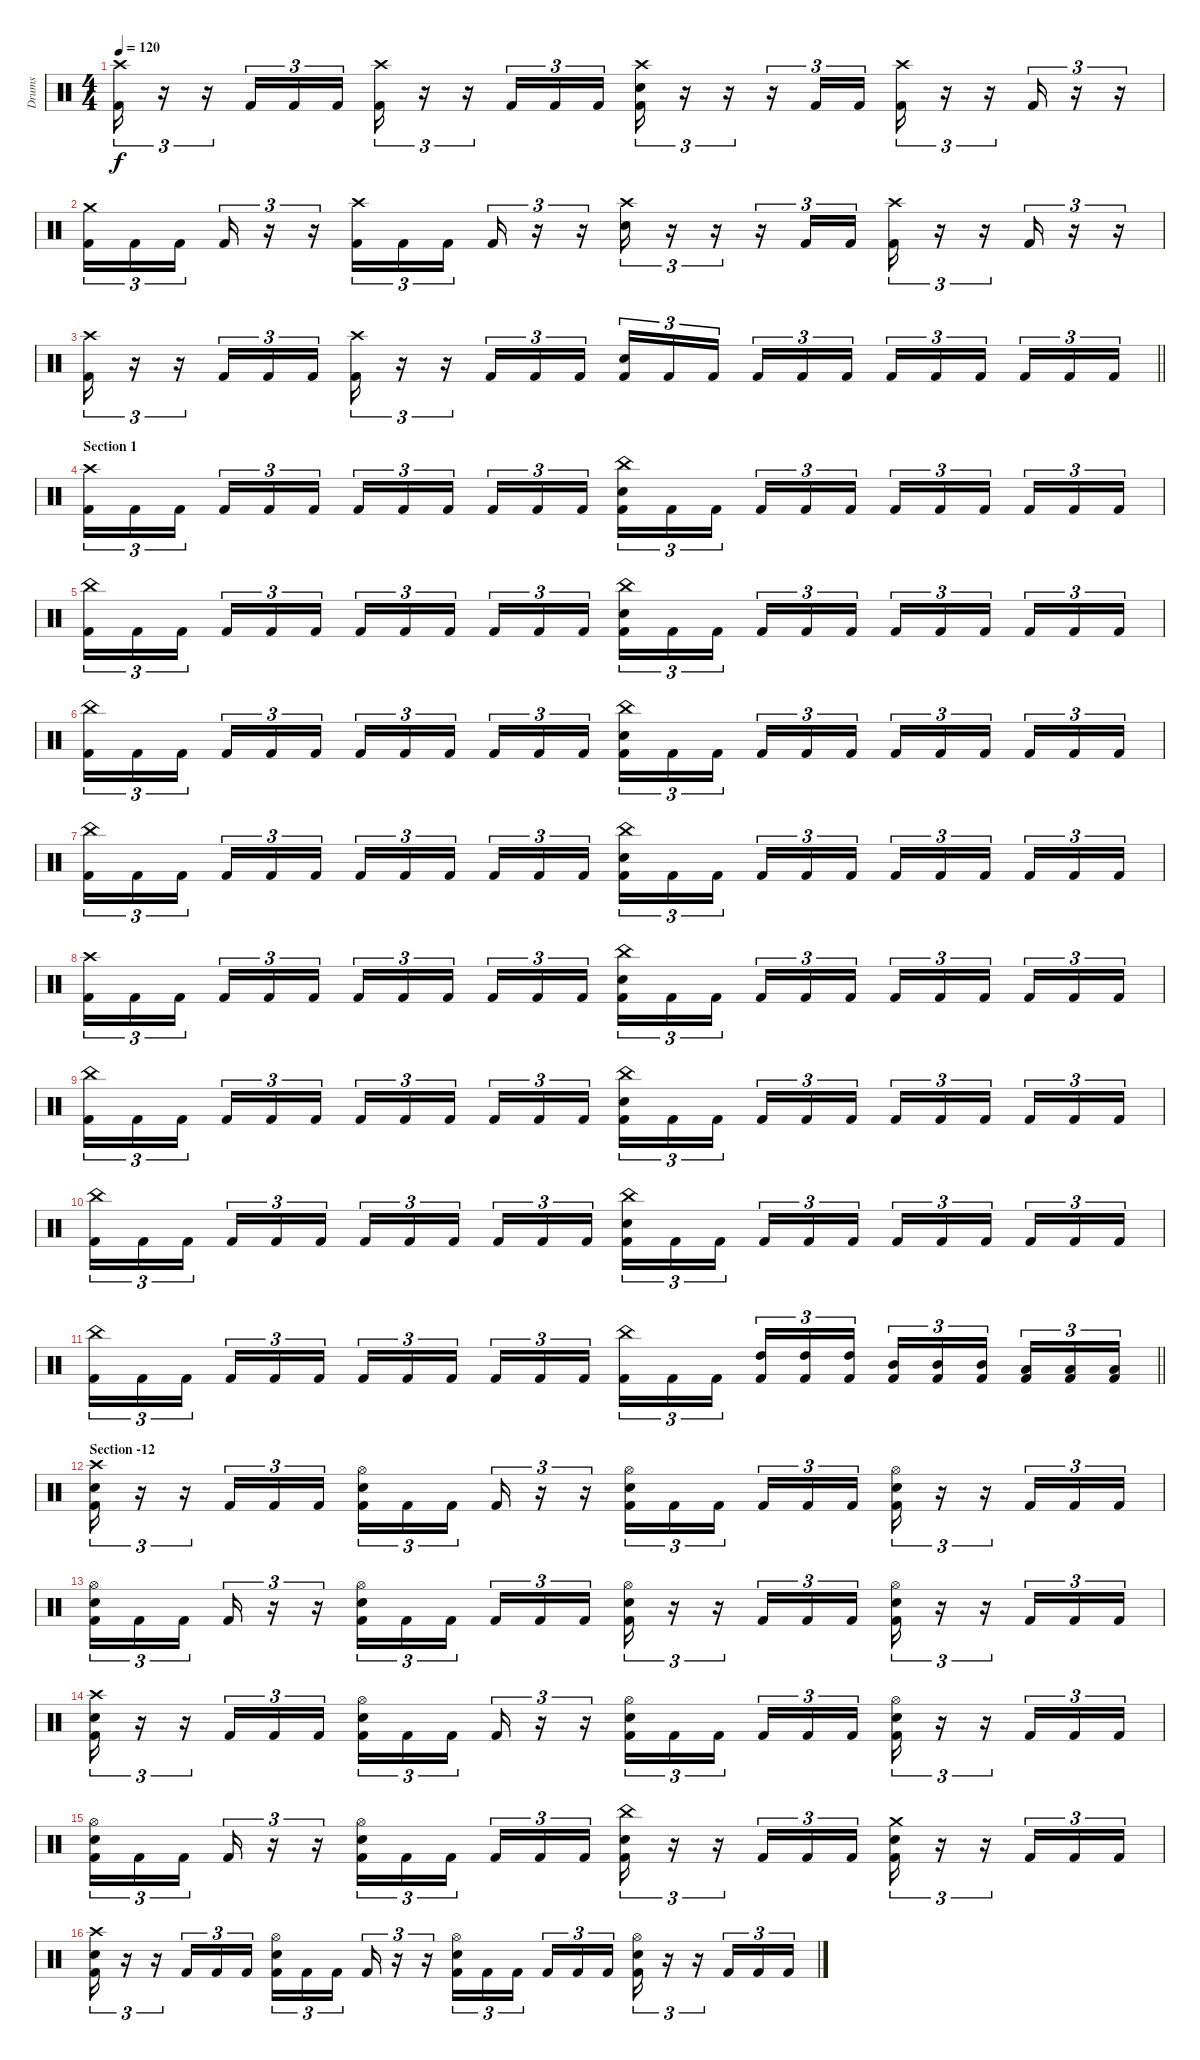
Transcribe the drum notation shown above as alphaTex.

\track ("Drums" "Drums") {instrument percussion}
\staff {score}
\articulation defaults
\ts (4 4)
\tempo 120
\clef neutral
\ks c
("Crash high (hit)" "Kick (hit) 2").16{tu (3 2) dy f} r.16{tu (3 2)} r.16{tu (3 2)} "Kick (hit) 2".16{tu (3 2)} "Kick (hit) 2".16{tu (3 2)} "Kick (hit) 2".16{tu (3 2)} ("Crash high (hit)" "Kick (hit) 2").16{tu (3 2)} r.16{tu (3 2)} r.16{tu (3 2)} "Kick (hit) 2".16{tu (3 2)} "Kick (hit) 2".16{tu (3 2)} "Kick (hit) 2".16{tu (3 2)} ("Crash high (hit)" "Snare (hit) 2" "Kick (hit) 2").16{tu (3 2)} r.16{tu (3 2)} r.16{tu (3 2)} r.16{tu (3 2)} "Kick (hit) 2".16{tu (3 2)} "Kick (hit) 2".16{tu (3 2)} ("Crash high (hit)" "Kick (hit) 2").16{tu (3 2)} r.16{tu (3 2)} r.16{tu (3 2)} "Kick (hit) 2".16{tu (3 2)} r.16{tu (3 2)} r.16{tu (3 2)} |
("Crash medium (hit)" "Kick (hit) 2").16{tu (3 2)} "Kick (hit) 2".16{tu (3 2)} "Kick (hit) 2".16{tu (3 2) beam splitsecondary} "Kick (hit) 2".16{tu (3 2)} r.16{tu (3 2)} r.16{tu (3 2)} ("Crash high (hit)" "Kick (hit) 2").16{tu (3 2)} "Kick (hit) 2".16{tu (3 2)} "Kick (hit) 2".16{tu (3 2) beam splitsecondary} "Kick (hit) 2".16{tu (3 2)} r.16{tu (3 2)} r.16{tu (3 2)} ("Crash high (hit)" "Snare (hit) 2").16{tu (3 2)} r.16{tu (3 2)} r.16{tu (3 2)} r.16{tu (3 2)} "Kick (hit) 2".16{tu (3 2)} "Kick (hit) 2".16{tu (3 2)} ("Crash high (hit)" "Kick (hit) 2").16{tu (3 2)} r.16{tu (3 2)} r.16{tu (3 2)} "Kick (hit) 2".16{tu (3 2)} r.16{tu (3 2)} r.16{tu (3 2)} |
\barLineRight lightlight
("Crash high (hit)" "Kick (hit) 2").16{tu (3 2)} r.16{tu (3 2)} r.16{tu (3 2)} "Kick (hit) 2".16{tu (3 2)} "Kick (hit) 2".16{tu (3 2)} "Kick (hit) 2".16{tu (3 2)} ("Crash high (hit)" "Kick (hit) 2").16{tu (3 2)} r.16{tu (3 2)} r.16{tu (3 2)} "Kick (hit) 2".16{tu (3 2)} "Kick (hit) 2".16{tu (3 2)} "Kick (hit) 2".16{tu (3 2)} ("Snare (hit) 2" "Kick (hit) 2").16{tu (3 2)} "Kick (hit) 2".16{tu (3 2)} "Kick (hit) 2".16{tu (3 2) beam splitsecondary} "Kick (hit) 2".16{tu (3 2)} "Kick (hit) 2".16{tu (3 2)} "Kick (hit) 2".16{tu (3 2)} "Kick (hit) 2".16{tu (3 2)} "Kick (hit) 2".16{tu (3 2)} "Kick (hit) 2".16{tu (3 2) beam splitsecondary} "Kick (hit) 2".16{tu (3 2)} "Kick (hit) 2".16{tu (3 2)} "Kick (hit) 2".16{tu (3 2)} |
\section ("" "Section 1")
("Crash high (hit)" "Kick (hit) 2").16{tu (3 2)} "Kick (hit) 2".16{tu (3 2)} "Kick (hit) 2".16{tu (3 2) beam splitsecondary} "Kick (hit) 2".16{tu (3 2)} "Kick (hit) 2".16{tu (3 2)} "Kick (hit) 2".16{tu (3 2)} "Kick (hit) 2".16{tu (3 2)} "Kick (hit) 2".16{tu (3 2)} "Kick (hit) 2".16{tu (3 2) beam splitsecondary} "Kick (hit) 2".16{tu (3 2)} "Kick (hit) 2".16{tu (3 2)} "Kick (hit) 2".16{tu (3 2)} ("China (hit)" "Snare (hit) 2" "Kick (hit) 2").16{tu (3 2)} "Kick (hit) 2".16{tu (3 2)} "Kick (hit) 2".16{tu (3 2) beam splitsecondary} "Kick (hit) 2".16{tu (3 2)} "Kick (hit) 2".16{tu (3 2)} "Kick (hit) 2".16{tu (3 2)} "Kick (hit) 2".16{tu (3 2)} "Kick (hit) 2".16{tu (3 2)} "Kick (hit) 2".16{tu (3 2) beam splitsecondary} "Kick (hit) 2".16{tu (3 2)} "Kick (hit) 2".16{tu (3 2)} "Kick (hit) 2".16{tu (3 2)} |
("China (hit)" "Kick (hit) 2").16{tu (3 2)} "Kick (hit) 2".16{tu (3 2)} "Kick (hit) 2".16{tu (3 2) beam splitsecondary} "Kick (hit) 2".16{tu (3 2)} "Kick (hit) 2".16{tu (3 2)} "Kick (hit) 2".16{tu (3 2)} "Kick (hit) 2".16{tu (3 2)} "Kick (hit) 2".16{tu (3 2)} "Kick (hit) 2".16{tu (3 2) beam splitsecondary} "Kick (hit) 2".16{tu (3 2)} "Kick (hit) 2".16{tu (3 2)} "Kick (hit) 2".16{tu (3 2)} ("China (hit)" "Snare (hit) 2" "Kick (hit) 2").16{tu (3 2)} "Kick (hit) 2".16{tu (3 2)} "Kick (hit) 2".16{tu (3 2) beam splitsecondary} "Kick (hit) 2".16{tu (3 2)} "Kick (hit) 2".16{tu (3 2)} "Kick (hit) 2".16{tu (3 2)} "Kick (hit) 2".16{tu (3 2)} "Kick (hit) 2".16{tu (3 2)} "Kick (hit) 2".16{tu (3 2) beam splitsecondary} "Kick (hit) 2".16{tu (3 2)} "Kick (hit) 2".16{tu (3 2)} "Kick (hit) 2".16{tu (3 2)} |
("China (hit)" "Kick (hit) 2").16{tu (3 2)} "Kick (hit) 2".16{tu (3 2)} "Kick (hit) 2".16{tu (3 2) beam splitsecondary} "Kick (hit) 2".16{tu (3 2)} "Kick (hit) 2".16{tu (3 2)} "Kick (hit) 2".16{tu (3 2)} "Kick (hit) 2".16{tu (3 2)} "Kick (hit) 2".16{tu (3 2)} "Kick (hit) 2".16{tu (3 2) beam splitsecondary} "Kick (hit) 2".16{tu (3 2)} "Kick (hit) 2".16{tu (3 2)} "Kick (hit) 2".16{tu (3 2)} ("China (hit)" "Snare (hit) 2" "Kick (hit) 2").16{tu (3 2)} "Kick (hit) 2".16{tu (3 2)} "Kick (hit) 2".16{tu (3 2) beam splitsecondary} "Kick (hit) 2".16{tu (3 2)} "Kick (hit) 2".16{tu (3 2)} "Kick (hit) 2".16{tu (3 2)} "Kick (hit) 2".16{tu (3 2)} "Kick (hit) 2".16{tu (3 2)} "Kick (hit) 2".16{tu (3 2) beam splitsecondary} "Kick (hit) 2".16{tu (3 2)} "Kick (hit) 2".16{tu (3 2)} "Kick (hit) 2".16{tu (3 2)} |
("China (hit)" "Kick (hit) 2").16{tu (3 2)} "Kick (hit) 2".16{tu (3 2)} "Kick (hit) 2".16{tu (3 2) beam splitsecondary} "Kick (hit) 2".16{tu (3 2)} "Kick (hit) 2".16{tu (3 2)} "Kick (hit) 2".16{tu (3 2)} "Kick (hit) 2".16{tu (3 2)} "Kick (hit) 2".16{tu (3 2)} "Kick (hit) 2".16{tu (3 2) beam splitsecondary} "Kick (hit) 2".16{tu (3 2)} "Kick (hit) 2".16{tu (3 2)} "Kick (hit) 2".16{tu (3 2)} ("China (hit)" "Snare (hit) 2" "Kick (hit) 2").16{tu (3 2)} "Kick (hit) 2".16{tu (3 2)} "Kick (hit) 2".16{tu (3 2) beam splitsecondary} "Kick (hit) 2".16{tu (3 2)} "Kick (hit) 2".16{tu (3 2)} "Kick (hit) 2".16{tu (3 2)} "Kick (hit) 2".16{tu (3 2)} "Kick (hit) 2".16{tu (3 2)} "Kick (hit) 2".16{tu (3 2) beam splitsecondary} "Kick (hit) 2".16{tu (3 2)} "Kick (hit) 2".16{tu (3 2)} "Kick (hit) 2".16{tu (3 2)} |
("Crash high (hit)" "Kick (hit) 2").16{tu (3 2)} "Kick (hit) 2".16{tu (3 2)} "Kick (hit) 2".16{tu (3 2) beam splitsecondary} "Kick (hit) 2".16{tu (3 2)} "Kick (hit) 2".16{tu (3 2)} "Kick (hit) 2".16{tu (3 2)} "Kick (hit) 2".16{tu (3 2)} "Kick (hit) 2".16{tu (3 2)} "Kick (hit) 2".16{tu (3 2) beam splitsecondary} "Kick (hit) 2".16{tu (3 2)} "Kick (hit) 2".16{tu (3 2)} "Kick (hit) 2".16{tu (3 2)} ("China (hit)" "Snare (hit) 2" "Kick (hit) 2").16{tu (3 2)} "Kick (hit) 2".16{tu (3 2)} "Kick (hit) 2".16{tu (3 2) beam splitsecondary} "Kick (hit) 2".16{tu (3 2)} "Kick (hit) 2".16{tu (3 2)} "Kick (hit) 2".16{tu (3 2)} "Kick (hit) 2".16{tu (3 2)} "Kick (hit) 2".16{tu (3 2)} "Kick (hit) 2".16{tu (3 2) beam splitsecondary} "Kick (hit) 2".16{tu (3 2)} "Kick (hit) 2".16{tu (3 2)} "Kick (hit) 2".16{tu (3 2)} |
("China (hit)" "Kick (hit) 2").16{tu (3 2)} "Kick (hit) 2".16{tu (3 2)} "Kick (hit) 2".16{tu (3 2) beam splitsecondary} "Kick (hit) 2".16{tu (3 2)} "Kick (hit) 2".16{tu (3 2)} "Kick (hit) 2".16{tu (3 2)} "Kick (hit) 2".16{tu (3 2)} "Kick (hit) 2".16{tu (3 2)} "Kick (hit) 2".16{tu (3 2) beam splitsecondary} "Kick (hit) 2".16{tu (3 2)} "Kick (hit) 2".16{tu (3 2)} "Kick (hit) 2".16{tu (3 2)} ("China (hit)" "Snare (hit) 2" "Kick (hit) 2").16{tu (3 2)} "Kick (hit) 2".16{tu (3 2)} "Kick (hit) 2".16{tu (3 2) beam splitsecondary} "Kick (hit) 2".16{tu (3 2)} "Kick (hit) 2".16{tu (3 2)} "Kick (hit) 2".16{tu (3 2)} "Kick (hit) 2".16{tu (3 2)} "Kick (hit) 2".16{tu (3 2)} "Kick (hit) 2".16{tu (3 2) beam splitsecondary} "Kick (hit) 2".16{tu (3 2)} "Kick (hit) 2".16{tu (3 2)} "Kick (hit) 2".16{tu (3 2)} |
("China (hit)" "Kick (hit) 2").16{tu (3 2)} "Kick (hit) 2".16{tu (3 2)} "Kick (hit) 2".16{tu (3 2) beam splitsecondary} "Kick (hit) 2".16{tu (3 2)} "Kick (hit) 2".16{tu (3 2)} "Kick (hit) 2".16{tu (3 2)} "Kick (hit) 2".16{tu (3 2)} "Kick (hit) 2".16{tu (3 2)} "Kick (hit) 2".16{tu (3 2) beam splitsecondary} "Kick (hit) 2".16{tu (3 2)} "Kick (hit) 2".16{tu (3 2)} "Kick (hit) 2".16{tu (3 2)} ("China (hit)" "Snare (hit) 2" "Kick (hit) 2").16{tu (3 2)} "Kick (hit) 2".16{tu (3 2)} "Kick (hit) 2".16{tu (3 2) beam splitsecondary} "Kick (hit) 2".16{tu (3 2)} "Kick (hit) 2".16{tu (3 2)} "Kick (hit) 2".16{tu (3 2)} "Kick (hit) 2".16{tu (3 2)} "Kick (hit) 2".16{tu (3 2)} "Kick (hit) 2".16{tu (3 2) beam splitsecondary} "Kick (hit) 2".16{tu (3 2)} "Kick (hit) 2".16{tu (3 2)} "Kick (hit) 2".16{tu (3 2)} |
\barLineRight lightlight
("China (hit)" "Kick (hit) 2").16{tu (3 2)} "Kick (hit) 2".16{tu (3 2)} "Kick (hit) 2".16{tu (3 2) beam splitsecondary} "Kick (hit) 2".16{tu (3 2)} "Kick (hit) 2".16{tu (3 2)} "Kick (hit) 2".16{tu (3 2)} "Kick (hit) 2".16{tu (3 2)} "Kick (hit) 2".16{tu (3 2)} "Kick (hit) 2".16{tu (3 2) beam splitsecondary} "Kick (hit) 2".16{tu (3 2)} "Kick (hit) 2".16{tu (3 2)} "Kick (hit) 2".16{tu (3 2)} ("China (hit)" "Kick (hit) 2").16{tu (3 2)} "Kick (hit) 2".16{tu (3 2)} "Kick (hit) 2".16{tu (3 2) beam splitsecondary} ("High Tom (hit)" "Kick (hit) 2").16{tu (3 2)} ("High Tom (hit)" "Kick (hit) 2").16{tu (3 2)} ("High Tom (hit)" "Kick (hit) 2").16{tu (3 2)} ("Mid Tom (hit)" "Kick (hit) 2").16{tu (3 2)} ("Mid Tom (hit)" "Kick (hit) 2").16{tu (3 2)} ("Mid Tom (hit)" "Kick (hit) 2").16{tu (3 2) beam splitsecondary} ("Low Tom (hit)" "Kick (hit) 2").16{tu (3 2)} ("Low Tom (hit)" "Kick (hit) 2").16{tu (3 2)} ("Low Tom (hit)" "Kick (hit) 2").16{tu (3 2)} |
\section ("" "Section -12")
("Crash high (hit)" "Snare (hit) 2" "Kick (hit) 2").16{tu (3 2)} r.16{tu (3 2)} r.16{tu (3 2)} "Kick (hit) 2".16{tu (3 2)} "Kick (hit) 2".16{tu (3 2)} "Kick (hit) 2".16{tu (3 2)} ("Hi-Hat (open)" "Snare (hit) 2" "Kick (hit) 2").16{tu (3 2)} "Kick (hit) 2".16{tu (3 2)} "Kick (hit) 2".16{tu (3 2) beam splitsecondary} "Kick (hit) 2".16{tu (3 2)} r.16{tu (3 2)} r.16{tu (3 2)} ("Hi-Hat (open)" "Snare (hit) 2" "Kick (hit) 2").16{tu (3 2)} "Kick (hit) 2".16{tu (3 2)} "Kick (hit) 2".16{tu (3 2) beam splitsecondary} "Kick (hit) 2".16{tu (3 2)} "Kick (hit) 2".16{tu (3 2)} "Kick (hit) 2".16{tu (3 2)} ("Hi-Hat (open)" "Snare (hit) 2" "Kick (hit) 2").16{tu (3 2)} r.16{tu (3 2)} r.16{tu (3 2)} "Kick (hit) 2".16{tu (3 2)} "Kick (hit) 2".16{tu (3 2)} "Kick (hit) 2".16{tu (3 2)} |
("Hi-Hat (open)" "Snare (hit) 2" "Kick (hit) 2").16{tu (3 2)} "Kick (hit) 2".16{tu (3 2)} "Kick (hit) 2".16{tu (3 2) beam splitsecondary} "Kick (hit) 2".16{tu (3 2)} r.16{tu (3 2)} r.16{tu (3 2)} ("Hi-Hat (open)" "Snare (hit) 2" "Kick (hit) 2").16{tu (3 2)} "Kick (hit) 2".16{tu (3 2)} "Kick (hit) 2".16{tu (3 2) beam splitsecondary} "Kick (hit) 2".16{tu (3 2)} "Kick (hit) 2".16{tu (3 2)} "Kick (hit) 2".16{tu (3 2)} ("Hi-Hat (open)" "Snare (hit) 2" "Kick (hit) 2").16{tu (3 2)} r.16{tu (3 2)} r.16{tu (3 2)} "Kick (hit) 2".16{tu (3 2)} "Kick (hit) 2".16{tu (3 2)} "Kick (hit) 2".16{tu (3 2)} ("Hi-Hat (open)" "Snare (hit) 2" "Kick (hit) 2").16{tu (3 2)} r.16{tu (3 2)} r.16{tu (3 2)} "Kick (hit) 2".16{tu (3 2)} "Kick (hit) 2".16{tu (3 2)} "Kick (hit) 2".16{tu (3 2)} |
("Crash high (hit)" "Snare (hit) 2" "Kick (hit) 2").16{tu (3 2)} r.16{tu (3 2)} r.16{tu (3 2)} "Kick (hit) 2".16{tu (3 2)} "Kick (hit) 2".16{tu (3 2)} "Kick (hit) 2".16{tu (3 2)} ("Hi-Hat (open)" "Snare (hit) 2" "Kick (hit) 2").16{tu (3 2)} "Kick (hit) 2".16{tu (3 2)} "Kick (hit) 2".16{tu (3 2) beam splitsecondary} "Kick (hit) 2".16{tu (3 2)} r.16{tu (3 2)} r.16{tu (3 2)} ("Hi-Hat (open)" "Snare (hit) 2" "Kick (hit) 2").16{tu (3 2)} "Kick (hit) 2".16{tu (3 2)} "Kick (hit) 2".16{tu (3 2) beam splitsecondary} "Kick (hit) 2".16{tu (3 2)} "Kick (hit) 2".16{tu (3 2)} "Kick (hit) 2".16{tu (3 2)} ("Hi-Hat (open)" "Snare (hit) 2" "Kick (hit) 2").16{tu (3 2)} r.16{tu (3 2)} r.16{tu (3 2)} "Kick (hit) 2".16{tu (3 2)} "Kick (hit) 2".16{tu (3 2)} "Kick (hit) 2".16{tu (3 2)} |
("Hi-Hat (open)" "Snare (hit) 2" "Kick (hit) 2").16{tu (3 2)} "Kick (hit) 2".16{tu (3 2)} "Kick (hit) 2".16{tu (3 2) beam splitsecondary} "Kick (hit) 2".16{tu (3 2)} r.16{tu (3 2)} r.16{tu (3 2)} ("Hi-Hat (open)" "Snare (hit) 2" "Kick (hit) 2").16{tu (3 2)} "Kick (hit) 2".16{tu (3 2)} "Kick (hit) 2".16{tu (3 2) beam splitsecondary} "Kick (hit) 2".16{tu (3 2)} "Kick (hit) 2".16{tu (3 2)} "Kick (hit) 2".16{tu (3 2)} ("China (hit)" "Snare (hit) 2" "Kick (hit) 2").16{tu (3 2)} r.16{tu (3 2)} r.16{tu (3 2)} "Kick (hit) 2".16{tu (3 2)} "Kick (hit) 2".16{tu (3 2)} "Kick (hit) 2".16{tu (3 2)} ("Crash medium (hit)" "Snare (hit) 2" "Kick (hit) 2").16{tu (3 2)} r.16{tu (3 2)} r.16{tu (3 2)} "Kick (hit) 2".16{tu (3 2)} "Kick (hit) 2".16{tu (3 2)} "Kick (hit) 2".16{tu (3 2)} |
("Crash high (hit)" "Snare (hit) 2" "Kick (hit) 2").16{tu (3 2)} r.16{tu (3 2)} r.16{tu (3 2)} "Kick (hit) 2".16{tu (3 2)} "Kick (hit) 2".16{tu (3 2)} "Kick (hit) 2".16{tu (3 2)} ("Hi-Hat (open)" "Snare (hit) 2" "Kick (hit) 2").16{tu (3 2)} "Kick (hit) 2".16{tu (3 2)} "Kick (hit) 2".16{tu (3 2) beam splitsecondary} "Kick (hit) 2".16{tu (3 2)} r.16{tu (3 2)} r.16{tu (3 2)} ("Hi-Hat (open)" "Snare (hit) 2" "Kick (hit) 2").16{tu (3 2)} "Kick (hit) 2".16{tu (3 2)} "Kick (hit) 2".16{tu (3 2) beam splitsecondary} "Kick (hit) 2".16{tu (3 2)} "Kick (hit) 2".16{tu (3 2)} "Kick (hit) 2".16{tu (3 2)} ("Hi-Hat (open)" "Snare (hit) 2" "Kick (hit) 2").16{tu (3 2)} r.16{tu (3 2)} r.16{tu (3 2)} "Kick (hit) 2".16{tu (3 2)} "Kick (hit) 2".16{tu (3 2)} "Kick (hit) 2".16{tu (3 2)}
